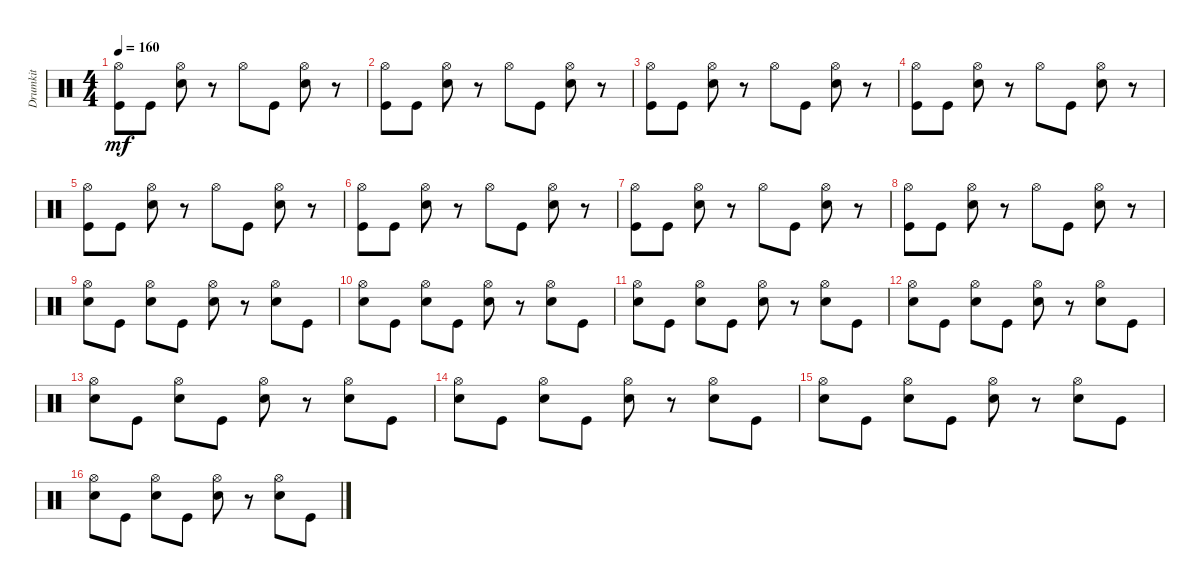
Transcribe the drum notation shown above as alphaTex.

\track ("Drumkit" "Drumkit") {instrument percussion}
\staff {score}
\articulation defaults
\ts (4 4)
\tempo 160
\clef neutral
\ks c
("Kick (hit)" "Hi-Hat (open)").8{dy mf} "Kick (hit)".8 ("Snare (hit) 2" "Hi-Hat (open)").8 r.8 "Hi-Hat (open)".8 "Kick (hit)".8 ("Snare (hit) 2" "Hi-Hat (open)").8 r.8 |
("Kick (hit)" "Hi-Hat (open)").8 "Kick (hit)".8 ("Snare (hit) 2" "Hi-Hat (open)").8 r.8 "Hi-Hat (open)".8 "Kick (hit)".8 ("Snare (hit) 2" "Hi-Hat (open)").8 r.8 |
("Kick (hit)" "Hi-Hat (open)").8 "Kick (hit)".8 ("Snare (hit) 2" "Hi-Hat (open)").8 r.8 "Hi-Hat (open)".8 "Kick (hit)".8 ("Snare (hit) 2" "Hi-Hat (open)").8 r.8 |
("Kick (hit)" "Hi-Hat (open)").8 "Kick (hit)".8 ("Snare (hit) 2" "Hi-Hat (open)").8 r.8 "Hi-Hat (open)".8 "Kick (hit)".8 ("Snare (hit) 2" "Hi-Hat (open)").8 r.8 |
("Kick (hit)" "Hi-Hat (open)").8 "Kick (hit)".8 ("Snare (hit) 2" "Hi-Hat (open)").8 r.8 "Hi-Hat (open)".8 "Kick (hit)".8 ("Snare (hit) 2" "Hi-Hat (open)").8 r.8 |
("Kick (hit)" "Hi-Hat (open)").8 "Kick (hit)".8 ("Snare (hit) 2" "Hi-Hat (open)").8 r.8 "Hi-Hat (open)".8 "Kick (hit)".8 ("Snare (hit) 2" "Hi-Hat (open)").8 r.8 |
("Kick (hit)" "Hi-Hat (open)").8 "Kick (hit)".8 ("Snare (hit) 2" "Hi-Hat (open)").8 r.8 "Hi-Hat (open)".8 "Kick (hit)".8 ("Snare (hit) 2" "Hi-Hat (open)").8 r.8 |
("Kick (hit)" "Hi-Hat (open)").8 "Kick (hit)".8 ("Snare (hit) 2" "Hi-Hat (open)").8 r.8 "Hi-Hat (open)".8 "Kick (hit)".8 ("Snare (hit) 2" "Hi-Hat (open)").8 r.8 |
("Snare (hit) 2" "Hi-Hat (open)").8 "Kick (hit)".8 ("Snare (hit) 2" "Hi-Hat (open)").8 "Kick (hit)".8 ("Snare (hit) 2" "Hi-Hat (open)").8 r.8 ("Snare (hit) 2" "Hi-Hat (open)").8 "Kick (hit)".8 |
("Snare (hit) 2" "Hi-Hat (open)").8 "Kick (hit)".8 ("Snare (hit) 2" "Hi-Hat (open)").8 "Kick (hit)".8 ("Snare (hit) 2" "Hi-Hat (open)").8 r.8 ("Snare (hit) 2" "Hi-Hat (open)").8 "Kick (hit)".8 |
("Snare (hit) 2" "Hi-Hat (open)").8 "Kick (hit)".8 ("Snare (hit) 2" "Hi-Hat (open)").8 "Kick (hit)".8 ("Snare (hit) 2" "Hi-Hat (open)").8 r.8 ("Snare (hit) 2" "Hi-Hat (open)").8 "Kick (hit)".8 |
("Snare (hit) 2" "Hi-Hat (open)").8 "Kick (hit)".8 ("Snare (hit) 2" "Hi-Hat (open)").8 "Kick (hit)".8 ("Snare (hit) 2" "Hi-Hat (open)").8 r.8 ("Snare (hit) 2" "Hi-Hat (open)").8 "Kick (hit)".8 |
("Snare (hit) 2" "Hi-Hat (open)").8 "Kick (hit)".8 ("Snare (hit) 2" "Hi-Hat (open)").8 "Kick (hit)".8 ("Snare (hit) 2" "Hi-Hat (open)").8 r.8 ("Snare (hit) 2" "Hi-Hat (open)").8 "Kick (hit)".8 |
("Snare (hit) 2" "Hi-Hat (open)").8 "Kick (hit)".8 ("Snare (hit) 2" "Hi-Hat (open)").8 "Kick (hit)".8 ("Snare (hit) 2" "Hi-Hat (open)").8 r.8 ("Snare (hit) 2" "Hi-Hat (open)").8 "Kick (hit)".8 |
("Snare (hit) 2" "Hi-Hat (open)").8 "Kick (hit)".8 ("Snare (hit) 2" "Hi-Hat (open)").8 "Kick (hit)".8 ("Snare (hit) 2" "Hi-Hat (open)").8 r.8 ("Snare (hit) 2" "Hi-Hat (open)").8 "Kick (hit)".8 |
("Snare (hit) 2" "Hi-Hat (open)").8 "Kick (hit)".8 ("Snare (hit) 2" "Hi-Hat (open)").8 "Kick (hit)".8 ("Snare (hit) 2" "Hi-Hat (open)").8 r.8 ("Snare (hit) 2" "Hi-Hat (open)").8 "Kick (hit)".8
